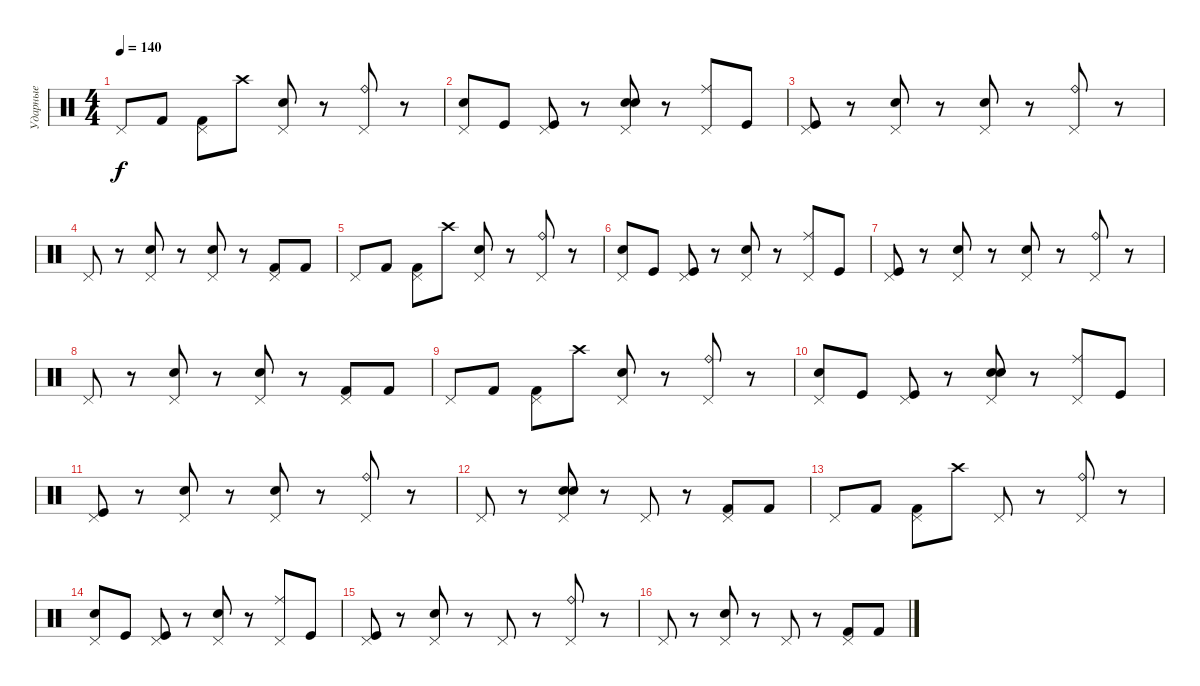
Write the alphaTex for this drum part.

\track ("Ударные" "Ударные") {instrument percussion bank 7}
\staff {score}
\articulation defaults
\ts (4 4)
\tempo 140
\clef neutral
\ks c "Pedal Hi-Hat (hit)".8{dy f} "Kick (hit) 2".8
("Pedal Hi-Hat (hit)" "Kick (hit) 2").8 "Crash high (hit)".8 ("Pedal Hi-Hat (hit)" "Metronome (bell)").8 r.8 ("Pedal Hi-Hat (hit)" "Ride (bell)").8 r.8 |
("Pedal Hi-Hat (hit)" "Snare (hit) 2").8 "Kick (hit)".8 ("Pedal Hi-Hat (hit)" "Kick (hit)").8 r.8 ("Pedal Hi-Hat (hit)" "Electric Snare (hit)" "Metronome (bell)").8 r.8 ("Pedal Hi-Hat (hit)" "Ride (middle)").8 "Kick (hit)".8 |
("Pedal Hi-Hat (hit)" "Kick (hit)").8 r.8 ("Pedal Hi-Hat (hit)" "Electric Snare (hit)").8 r.8 ("Pedal Hi-Hat (hit)" "Metronome (bell)").8 r.8 ("Pedal Hi-Hat (hit)" "Ride (bell)").8 r.8 |
"Pedal Hi-Hat (hit)".8 r.8 ("Pedal Hi-Hat (hit)" "Electric Snare (hit)").8 r.8 ("Pedal Hi-Hat (hit)" "Metronome (bell)").8 r.8 ("Pedal Hi-Hat (hit)" "Kick (hit) 2").8 "Kick (hit) 2".8 |
"Pedal Hi-Hat (hit)".8 "Kick (hit) 2".8 ("Pedal Hi-Hat (hit)" "Kick (hit) 2").8 "Crash high (hit)".8 ("Pedal Hi-Hat (hit)" "Metronome (bell)").8 r.8 ("Pedal Hi-Hat (hit)" "Ride (bell)").8 r.8 |
("Pedal Hi-Hat (hit)" "Snare (hit) 2").8 "Kick (hit)".8 ("Pedal Hi-Hat (hit)" "Kick (hit)").8 r.8 ("Pedal Hi-Hat (hit)" "Electric Snare (hit)").8 r.8 ("Pedal Hi-Hat (hit)" "Ride (middle)").8 "Kick (hit)".8 |
("Pedal Hi-Hat (hit)" "Kick (hit)").8 r.8 ("Pedal Hi-Hat (hit)" "Electric Snare (hit)").8 r.8 ("Pedal Hi-Hat (hit)" "Metronome (bell)").8 r.8 ("Pedal Hi-Hat (hit)" "Ride (bell)").8 r.8 |
"Pedal Hi-Hat (hit)".8 r.8 ("Pedal Hi-Hat (hit)" "Electric Snare (hit)").8 r.8 ("Pedal Hi-Hat (hit)" "Metronome (bell)").8 r.8 ("Pedal Hi-Hat (hit)" "Kick (hit) 2").8 "Kick (hit) 2".8 |
"Pedal Hi-Hat (hit)".8 "Kick (hit) 2".8 ("Pedal Hi-Hat (hit)" "Kick (hit) 2").8 "Crash high (hit)".8 ("Pedal Hi-Hat (hit)" "Metronome (bell)").8 r.8 ("Pedal Hi-Hat (hit)" "Ride (bell)").8 r.8 |
("Pedal Hi-Hat (hit)" "Snare (hit) 2").8 "Kick (hit)".8 ("Pedal Hi-Hat (hit)" "Kick (hit)").8 r.8 ("Pedal Hi-Hat (hit)" "Electric Snare (hit)" "Metronome (bell)").8 r.8 ("Pedal Hi-Hat (hit)" "Ride (middle)").8 "Kick (hit)".8 |
("Pedal Hi-Hat (hit)" "Kick (hit)").8 r.8 ("Pedal Hi-Hat (hit)" "Electric Snare (hit)").8 r.8 ("Pedal Hi-Hat (hit)" "Metronome (bell)").8 r.8 ("Pedal Hi-Hat (hit)" "Ride (bell)").8 r.8 |
"Pedal Hi-Hat (hit)".8 r.8 ("Pedal Hi-Hat (hit)" "Electric Snare (hit)" "Metronome (bell)").8 r.8 "Pedal Hi-Hat (hit)".8 r.8 ("Pedal Hi-Hat (hit)" "Kick (hit) 2").8 "Kick (hit) 2".8 |
"Pedal Hi-Hat (hit)".8 "Kick (hit) 2".8 ("Pedal Hi-Hat (hit)" "Kick (hit) 2").8 "Crash high (hit)".8 "Pedal Hi-Hat (hit)".8 r.8 ("Pedal Hi-Hat (hit)" "Ride (bell)").8 r.8 |
("Pedal Hi-Hat (hit)" "Snare (hit) 2").8 "Kick (hit)".8 ("Pedal Hi-Hat (hit)" "Kick (hit)").8 r.8 ("Pedal Hi-Hat (hit)" "Electric Snare (hit)").8 r.8 ("Pedal Hi-Hat (hit)" "Ride (middle)").8 "Kick (hit)".8 |
("Pedal Hi-Hat (hit)" "Kick (hit)").8 r.8 ("Pedal Hi-Hat (hit)" "Electric Snare (hit)").8 r.8 "Pedal Hi-Hat (hit)".8 r.8 ("Pedal Hi-Hat (hit)" "Ride (bell)").8 r.8 |
"Pedal Hi-Hat (hit)".8 r.8 ("Pedal Hi-Hat (hit)" "Electric Snare (hit)").8 r.8 "Pedal Hi-Hat (hit)".8 r.8 ("Pedal Hi-Hat (hit)" "Kick (hit) 2").8 "Kick (hit) 2".8
